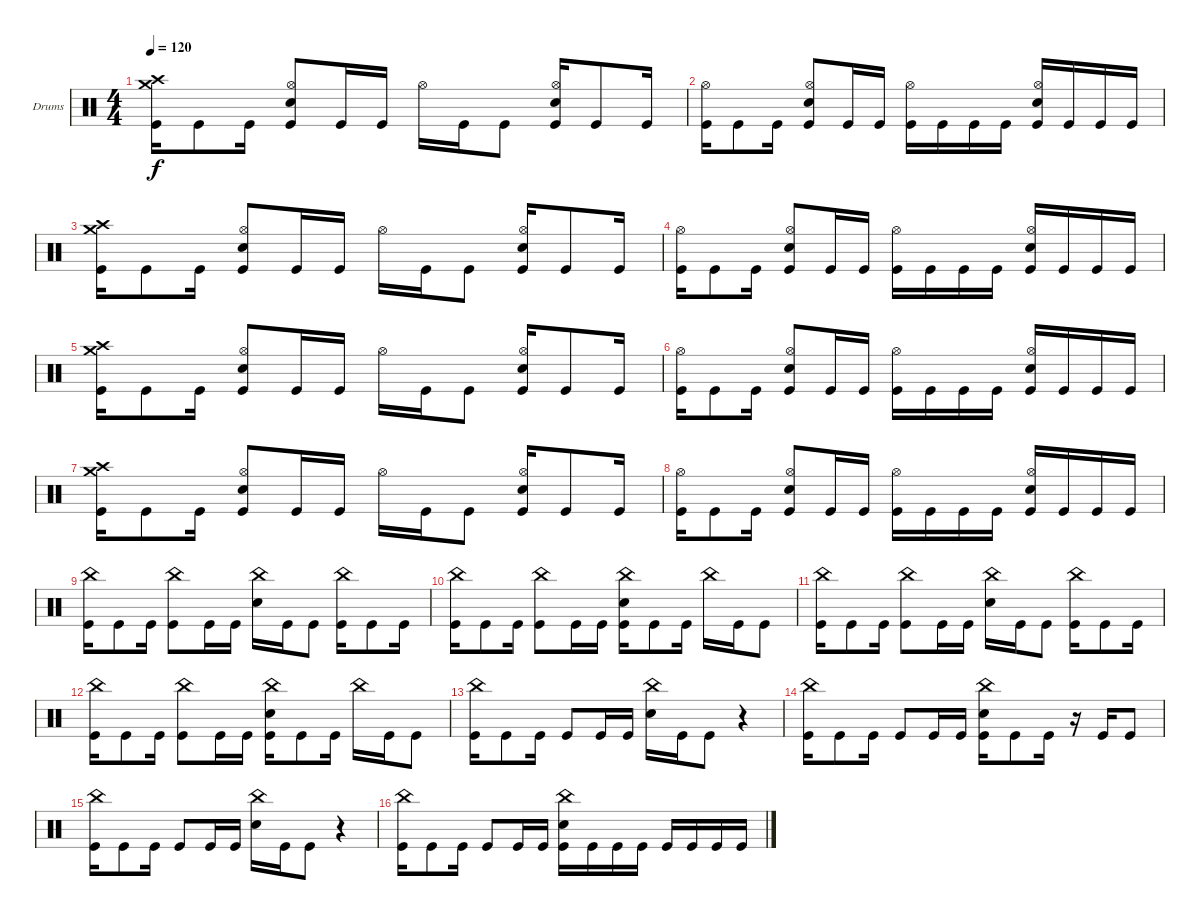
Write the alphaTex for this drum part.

\defaultSystemsLayout 4
\bracketExtendMode groupsimilarinstruments
\firstSystemTrackNameOrientation horizontal
\otherSystemsTrackNameOrientation horizontal
\track ("Drumkit" "Drums") {instrument percussion}
\staff {score}
\articulation defaults
\ts (4 4)
\tempo 120
\clef neutral
\scale
0.333333
\ks c
("Crash medium (hit)" "Crash high (hit)" "Kick (hit)").16{dy f} "Kick (hit)".8 "Kick (hit)".16 ("Hi-Hat (open)" "Snare (hit) 2" "Kick (hit)").8 "Kick (hit)".16 "Kick (hit)".16 "Hi-Hat (open)".16 "Kick (hit)".16 "Kick (hit)".8 ("Hi-Hat (open)" "Snare (hit) 2" "Kick (hit)").16 "Kick (hit)".8 "Kick (hit)".16 |
\scale
0.333333 ("Hi-Hat (open)" "Kick (hit)").16 "Kick (hit)".8 "Kick (hit)".16 ("Hi-Hat (open)" "Snare (hit) 2" "Kick (hit)").8 "Kick (hit)".16 "Kick (hit)".16 ("Hi-Hat (open)" "Kick (hit)").16 "Kick (hit)".16 "Kick (hit)".16 "Kick (hit)".16 ("Hi-Hat (open)" "Snare (hit) 2" "Kick (hit)").16 "Kick (hit)".16 "Kick (hit)".16 "Kick (hit)".16 |
\scale
0.333333 ("Crash medium (hit)" "Crash high (hit)" "Kick (hit)").16 "Kick (hit)".8 "Kick (hit)".16 ("Hi-Hat (open)" "Snare (hit) 2" "Kick (hit)").8 "Kick (hit)".16 "Kick (hit)".16 "Hi-Hat (open)".16 "Kick (hit)".16 "Kick (hit)".8 ("Hi-Hat (open)" "Snare (hit) 2" "Kick (hit)").16 "Kick (hit)".8 "Kick (hit)".16 |
\scale
0.333333 ("Hi-Hat (open)" "Kick (hit)").16 "Kick (hit)".8 "Kick (hit)".16 ("Hi-Hat (open)" "Snare (hit) 2" "Kick (hit)").8 "Kick (hit)".16 "Kick (hit)".16 ("Hi-Hat (open)" "Kick (hit)").16 "Kick (hit)".16 "Kick (hit)".16 "Kick (hit)".16 ("Hi-Hat (open)" "Snare (hit) 2" "Kick (hit)").16 "Kick (hit)".16 "Kick (hit)".16 "Kick (hit)".16 |
\scale
0.333333 ("Crash medium (hit)" "Crash high (hit)" "Kick (hit)").16 "Kick (hit)".8 "Kick (hit)".16 ("Hi-Hat (open)" "Snare (hit) 2" "Kick (hit)").8 "Kick (hit)".16 "Kick (hit)".16 "Hi-Hat (open)".16 "Kick (hit)".16 "Kick (hit)".8 ("Hi-Hat (open)" "Snare (hit) 2" "Kick (hit)").16 "Kick (hit)".8 "Kick (hit)".16 |
\scale
0.333333 ("Hi-Hat (open)" "Kick (hit)").16 "Kick (hit)".8 "Kick (hit)".16 ("Hi-Hat (open)" "Snare (hit) 2" "Kick (hit)").8 "Kick (hit)".16 "Kick (hit)".16 ("Hi-Hat (open)" "Kick (hit)").16 "Kick (hit)".16 "Kick (hit)".16 "Kick (hit)".16 ("Hi-Hat (open)" "Snare (hit) 2" "Kick (hit)").16 "Kick (hit)".16 "Kick (hit)".16 "Kick (hit)".16 |
\scale
0.333333 ("Crash medium (hit)" "Crash high (hit)" "Kick (hit)").16 "Kick (hit)".8 "Kick (hit)".16 ("Hi-Hat (open)" "Snare (hit) 2" "Kick (hit)").8 "Kick (hit)".16 "Kick (hit)".16 "Hi-Hat (open)".16 "Kick (hit)".16 "Kick (hit)".8 ("Hi-Hat (open)" "Snare (hit) 2" "Kick (hit)").16 "Kick (hit)".8 "Kick (hit)".16 |
\scale
0.333333 ("Hi-Hat (open)" "Kick (hit)").16 "Kick (hit)".8 "Kick (hit)".16 ("Hi-Hat (open)" "Snare (hit) 2" "Kick (hit)").8 "Kick (hit)".16 "Kick (hit)".16 ("Hi-Hat (open)" "Kick (hit)").16 "Kick (hit)".16 "Kick (hit)".16 "Kick (hit)".16 ("Hi-Hat (open)" "Snare (hit) 2" "Kick (hit)").16 "Kick (hit)".16 "Kick (hit)".16 "Kick (hit)".16 |
\scale
0.333333 ("China (hit)" "Kick (hit)").16 "Kick (hit)".8 "Kick (hit)".16 ("China (hit)" "Kick (hit)").8 "Kick (hit)".16 "Kick (hit)".16 ("China (hit)" "Snare (hit) 2").16 "Kick (hit)".16 "Kick (hit)".8 ("China (hit)" "Kick (hit)").16 "Kick (hit)".8 "Kick (hit)".16 |
\scale
0.333333 ("China (hit)" "Kick (hit)").16 "Kick (hit)".8 "Kick (hit)".16 ("China (hit)" "Kick (hit)").8 "Kick (hit)".16 "Kick (hit)".16 ("China (hit)" "Snare (hit) 2" "Kick (hit)").16 "Kick (hit)".8 "Kick (hit)".16 "China (hit)".16 "Kick (hit)".16 "Kick (hit)".8 |
\scale
0.333333 ("China (hit)" "Kick (hit)").16 "Kick (hit)".8 "Kick (hit)".16 ("China (hit)" "Kick (hit)").8 "Kick (hit)".16 "Kick (hit)".16 ("China (hit)" "Snare (hit) 2").16 "Kick (hit)".16 "Kick (hit)".8 ("China (hit)" "Kick (hit)").16 "Kick (hit)".8 "Kick (hit)".16 |
\scale
0.333333 ("China (hit)" "Kick (hit)").16 "Kick (hit)".8 "Kick (hit)".16 ("China (hit)" "Kick (hit)").8 "Kick (hit)".16 "Kick (hit)".16 ("China (hit)" "Snare (hit) 2" "Kick (hit)").16 "Kick (hit)".8 "Kick (hit)".16 "China (hit)".16 "Kick (hit)".16 "Kick (hit)".8 |
\scale
0.333333 ("China (hit)" "Kick (hit)").16 "Kick (hit)".8 "Kick (hit)".16 "Kick (hit)".8 "Kick (hit)".16 "Kick (hit)".16 ("China (hit)" "Snare (hit) 2").16 "Kick (hit)".16 "Kick (hit)".8 r.4 |
\scale
0.333333 ("China (hit)" "Kick (hit)").16 "Kick (hit)".8 "Kick (hit)".16 "Kick (hit)".8 "Kick (hit)".16 "Kick (hit)".16 ("China (hit)" "Snare (hit) 2" "Kick (hit)").16 "Kick (hit)".8 "Kick (hit)".16 r.16 "Kick (hit)".16 "Kick (hit)".8 |
\scale
0.333333 ("China (hit)" "Kick (hit)").16 "Kick (hit)".8 "Kick (hit)".16 "Kick (hit)".8 "Kick (hit)".16 "Kick (hit)".16 ("China (hit)" "Snare (hit) 2").16 "Kick (hit)".16 "Kick (hit)".8 r.4 |
\scale
0.333333 ("China (hit)" "Kick (hit)").16 "Kick (hit)".8 "Kick (hit)".16 "Kick (hit)".8 "Kick (hit)".16 "Kick (hit)".16 ("China (hit)" "Snare (hit) 2" "Kick (hit)").16 "Kick (hit)".16 "Kick (hit)".16 "Kick (hit)".16 "Kick (hit)".16 "Kick (hit)".16 "Kick (hit)".16 "Kick (hit)".16
